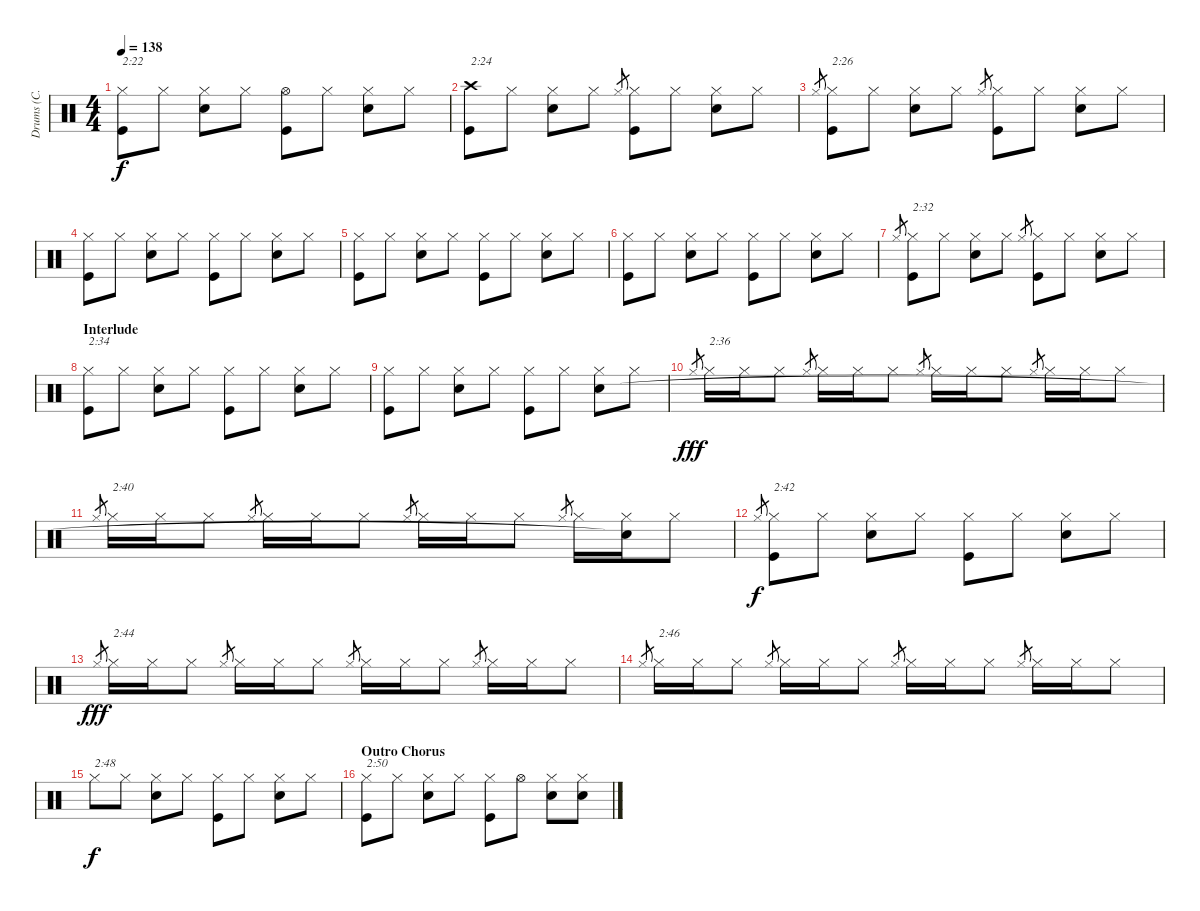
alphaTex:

\track ("Drums (C. Watts)" "Drums (C. ") {instrument percussion}
\staff {score}
\articulation defaults
\ts (4 4)
\tempo 138
\clef neutral
\ks c
("Hi-Hat (closed)" "Kick (hit)").8{txt "2:22" dy f} "Hi-Hat (closed)".8 ("Hi-Hat (closed)" "Snare (hit) 2").8 "Hi-Hat (closed)".8 ("Hi-Hat (open)" "Kick (hit)").8 "Hi-Hat (closed)".8 ("Hi-Hat (closed)" "Snare (hit) 2").8 "Hi-Hat (closed)".8 |
("Crash high (hit)" "Kick (hit)").8{txt "2:24"} "Hi-Hat (closed)".8 ("Hi-Hat (closed)" "Snare (hit) 2").8 "Hi-Hat (closed)".8 "Hi-Hat (closed)".8{gr} ("Hi-Hat (closed)" "Kick (hit)").8 "Hi-Hat (closed)".8 ("Hi-Hat (closed)" "Snare (hit) 2").8 "Hi-Hat (closed)".8 |
"Hi-Hat (closed)".8{gr} ("Hi-Hat (closed)" "Kick (hit)").8{txt "2:26"} "Hi-Hat (closed)".8 ("Hi-Hat (closed)" "Snare (hit) 2").8 "Hi-Hat (closed)".8 "Hi-Hat (closed)".8{gr} ("Hi-Hat (closed)" "Kick (hit)").8 "Hi-Hat (closed)".8 ("Hi-Hat (closed)" "Snare (hit) 2").8 "Hi-Hat (closed)".8 |
("Hi-Hat (closed)" "Kick (hit)").8 "Hi-Hat (closed)".8 ("Hi-Hat (closed)" "Snare (hit) 2").8 "Hi-Hat (closed)".8 ("Hi-Hat (closed)" "Kick (hit)").8 "Hi-Hat (closed)".8 ("Hi-Hat (closed)" "Snare (hit) 2").8 "Hi-Hat (closed)".8 |
("Hi-Hat (closed)" "Kick (hit)").8 "Hi-Hat (closed)".8 ("Hi-Hat (closed)" "Snare (hit) 2").8 "Hi-Hat (closed)".8 ("Hi-Hat (closed)" "Kick (hit)").8 "Hi-Hat (closed)".8 ("Hi-Hat (closed)" "Snare (hit) 2").8 "Hi-Hat (closed)".8 |
("Hi-Hat (closed)" "Kick (hit)").8 "Hi-Hat (closed)".8 ("Hi-Hat (closed)" "Snare (hit) 2").8 "Hi-Hat (closed)".8 ("Hi-Hat (closed)" "Kick (hit)").8 "Hi-Hat (closed)".8 ("Hi-Hat (closed)" "Snare (hit) 2").8 "Hi-Hat (closed)".8 |
"Hi-Hat (closed)".8{gr} ("Hi-Hat (closed)" "Kick (hit)").8{txt "2:32"} "Hi-Hat (closed)".8 ("Hi-Hat (closed)" "Snare (hit) 2").8 "Hi-Hat (closed)".8 "Hi-Hat (closed)".8{gr} ("Hi-Hat (closed)" "Kick (hit)").8 "Hi-Hat (closed)".8 ("Hi-Hat (closed)" "Snare (hit) 2").8 "Hi-Hat (closed)".8 |
\section ("" "Interlude")
("Hi-Hat (closed)" "Kick (hit)").8{txt "2:34"} "Hi-Hat (closed)".8 ("Hi-Hat (closed)" "Snare (hit) 2").8 "Hi-Hat (closed)".8 ("Hi-Hat (closed)" "Kick (hit)").8 "Hi-Hat (closed)".8 ("Hi-Hat (closed)" "Snare (hit) 2").8 "Hi-Hat (closed)".8 |
("Hi-Hat (closed)" "Kick (hit)").8 "Hi-Hat (closed)".8 ("Hi-Hat (closed)" "Snare (hit) 2").8 "Hi-Hat (closed)".8 ("Hi-Hat (closed)" "Kick (hit)").8 "Hi-Hat (closed)".8 ("Hi-Hat (closed)" "Snare (hit) 2").8 "Hi-Hat (closed)".8 |
"Hi-Hat (closed)".8{gr dy fff} "Hi-Hat (closed)".16{txt "2:36"} "Hi-Hat (closed)".16 "Hi-Hat (closed)".8 "Hi-Hat (closed)".8{gr} "Hi-Hat (closed)".16 "Hi-Hat (closed)".16 "Hi-Hat (closed)".8 "Hi-Hat (closed)".8{gr} "Hi-Hat (closed)".16 "Hi-Hat (closed)".16 "Hi-Hat (closed)".8 "Hi-Hat (closed)".8{gr} "Hi-Hat (closed)".16 "Hi-Hat (closed)".16 "Hi-Hat (closed)".8 |
"Hi-Hat (closed)".8{gr} "Hi-Hat (closed)".16{txt "2:40"} "Hi-Hat (closed)".16 "Hi-Hat (closed)".8 "Hi-Hat (closed)".8{gr} "Hi-Hat (closed)".16 "Hi-Hat (closed)".16 "Hi-Hat (closed)".8 "Hi-Hat (closed)".8{gr} "Hi-Hat (closed)".16 "Hi-Hat (closed)".16 "Hi-Hat (closed)".8 "Hi-Hat (closed)".8{gr} "Hi-Hat (closed)".16 ("Hi-Hat (closed)" "Snare (hit)"{t}).16 "Hi-Hat (closed)".8 |
"Hi-Hat (closed)".8{gr dy f} ("Hi-Hat (closed)" "Kick (hit)").8{txt "2:42"} "Hi-Hat (closed)".8 ("Hi-Hat (closed)" "Snare (hit) 2").8 "Hi-Hat (closed)".8 ("Hi-Hat (closed)" "Kick (hit)").8 "Hi-Hat (closed)".8 ("Hi-Hat (closed)" "Snare (hit) 2").8 "Hi-Hat (closed)".8 |
"Hi-Hat (closed)".8{gr dy fff} "Hi-Hat (closed)".16{txt "2:44"} "Hi-Hat (closed)".16 "Hi-Hat (closed)".8 "Hi-Hat (closed)".8{gr} "Hi-Hat (closed)".16 "Hi-Hat (closed)".16 "Hi-Hat (closed)".8 "Hi-Hat (closed)".8{gr} "Hi-Hat (closed)".16 "Hi-Hat (closed)".16 "Hi-Hat (closed)".8 "Hi-Hat (closed)".8{gr} "Hi-Hat (closed)".16 "Hi-Hat (closed)".16 "Hi-Hat (closed)".8 |
"Hi-Hat (closed)".8{gr} "Hi-Hat (closed)".16{txt "2:46"} "Hi-Hat (closed)".16 "Hi-Hat (closed)".8 "Hi-Hat (closed)".8{gr} "Hi-Hat (closed)".16 "Hi-Hat (closed)".16 "Hi-Hat (closed)".8 "Hi-Hat (closed)".8{gr} "Hi-Hat (closed)".16 "Hi-Hat (closed)".16 "Hi-Hat (closed)".8 "Hi-Hat (closed)".8{gr} "Hi-Hat (closed)".16 "Hi-Hat (closed)".16 "Hi-Hat (closed)".8 |
"Hi-Hat (closed)".8{txt "2:48" dy f} "Hi-Hat (closed)".8 ("Hi-Hat (closed)" "Snare (hit) 2").8 "Hi-Hat (closed)".8 ("Hi-Hat (closed)" "Kick (hit)").8 "Hi-Hat (closed)".8 ("Hi-Hat (closed)" "Snare (hit) 2").8 "Hi-Hat (closed)".8 |
\section ("" "Outro Chorus")
("Hi-Hat (closed)" "Kick (hit)").8{txt "2:50"} "Hi-Hat (closed)".8 ("Hi-Hat (closed)" "Snare (hit) 2").8 "Hi-Hat (closed)".8 ("Hi-Hat (closed)" "Kick (hit)").8 "Hi-Hat (open)".8 ("Hi-Hat (closed)" "Snare (hit) 2").8 ("Hi-Hat (closed)" "Snare (hit) 2").8
